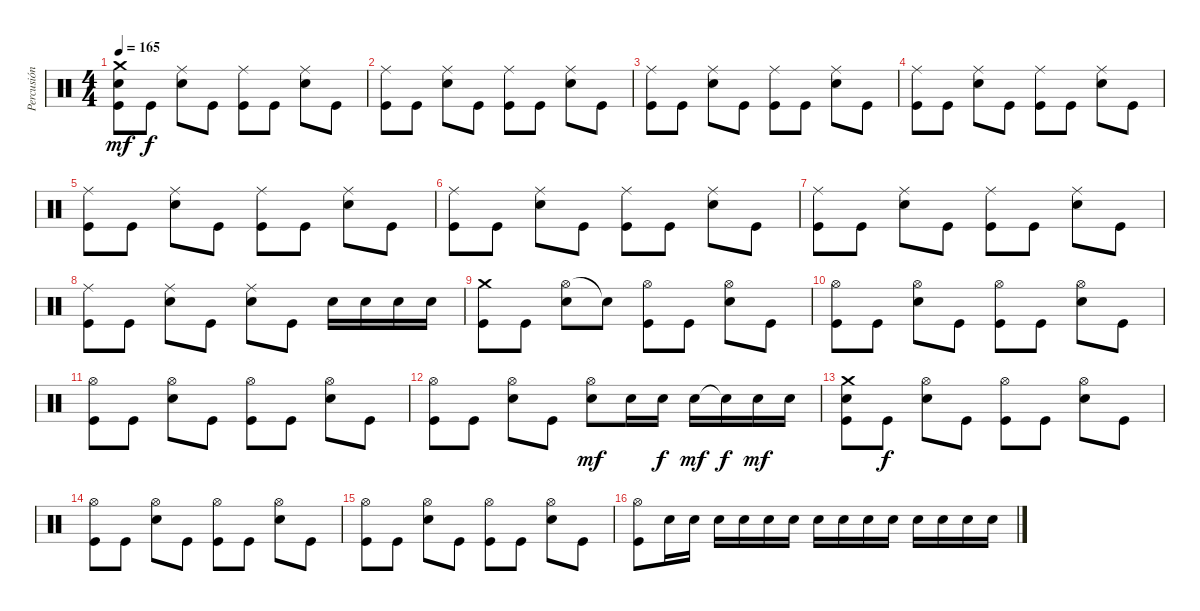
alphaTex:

\track ("Percusión" "Percusión") {instrument percussion}
\staff {score}
\articulation defaults
\ts (4 4)
\tempo 165
\clef neutral
\ks c
("Crash medium (hit)" "Electric Snare (hit)" "Kick (hit)").8{dy mf} "Kick (hit)".8{dy f} ("Ride (middle)" "Electric Snare (hit)").8 "Kick (hit)".8 ("Ride (middle)" "Kick (hit)").8 "Kick (hit)".8 ("Ride (middle)" "Electric Snare (hit)").8 "Kick (hit)".8 |
("Ride (middle)" "Kick (hit)").8 "Kick (hit)".8 ("Ride (middle)" "Electric Snare (hit)").8 "Kick (hit)".8 ("Ride (middle)" "Kick (hit)").8 "Kick (hit)".8 ("Ride (middle)" "Electric Snare (hit)").8 "Kick (hit)".8 |
("Ride (middle)" "Kick (hit)").8 "Kick (hit)".8 ("Ride (middle)" "Electric Snare (hit)").8 "Kick (hit)".8 ("Ride (middle)" "Kick (hit)").8 "Kick (hit)".8 ("Ride (middle)" "Electric Snare (hit)").8 "Kick (hit)".8 |
("Ride (middle)" "Kick (hit)").8 "Kick (hit)".8 ("Ride (middle)" "Electric Snare (hit)").8 "Kick (hit)".8 ("Ride (middle)" "Kick (hit)").8 "Kick (hit)".8 ("Ride (middle)" "Electric Snare (hit)").8 "Kick (hit)".8 |
("Ride (middle)" "Kick (hit)").8 "Kick (hit)".8 ("Ride (middle)" "Electric Snare (hit)").8 "Kick (hit)".8 ("Ride (middle)" "Kick (hit)").8 "Kick (hit)".8 ("Ride (middle)" "Electric Snare (hit)").8 "Kick (hit)".8 |
("Ride (middle)" "Kick (hit)").8 "Kick (hit)".8 ("Ride (middle)" "Electric Snare (hit)").8 "Kick (hit)".8 ("Ride (middle)" "Kick (hit)").8 "Kick (hit)".8 ("Ride (middle)" "Electric Snare (hit)").8 "Kick (hit)".8 |
("Ride (middle)" "Kick (hit)").8 "Kick (hit)".8 ("Ride (middle)" "Electric Snare (hit)").8 "Kick (hit)".8 ("Ride (middle)" "Kick (hit)").8 "Kick (hit)".8 ("Ride (middle)" "Electric Snare (hit)").8 "Kick (hit)".8 |
("Ride (middle)" "Kick (hit)").8 "Kick (hit)".8 ("Ride (middle)" "Electric Snare (hit)").8 "Kick (hit)".8 ("Ride (middle)" "Electric Snare (hit)").8 "Kick (hit)".8 "Electric Snare (hit)".16 "Electric Snare (hit)".16 "Electric Snare (hit)".16 "Electric Snare (hit)".16 |
("Crash medium (hit)" "Kick (hit)").8 "Kick (hit)".8 ("Hi-Hat (open)" "Electric Snare (hit)").8 "Snare (hit)"{t}.8 ("Hi-Hat (open)" "Kick (hit)").8 "Kick (hit)".8 ("Hi-Hat (open)" "Electric Snare (hit)").8 "Kick (hit)".8 |
("Hi-Hat (open)" "Kick (hit)").8 "Kick (hit)".8 ("Hi-Hat (open)" "Electric Snare (hit)").8 "Kick (hit)".8 ("Hi-Hat (open)" "Kick (hit)").8 "Kick (hit)".8 ("Hi-Hat (open)" "Electric Snare (hit)").8 "Kick (hit)".8 |
("Hi-Hat (open)" "Kick (hit)").8 "Kick (hit)".8 ("Hi-Hat (open)" "Electric Snare (hit)").8 "Kick (hit)".8 ("Hi-Hat (open)" "Kick (hit)").8 "Kick (hit)".8 ("Hi-Hat (open)" "Electric Snare (hit)").8 "Kick (hit)".8 |
("Hi-Hat (open)" "Kick (hit)").8 "Kick (hit)".8 ("Hi-Hat (open)" "Electric Snare (hit)").8 "Kick (hit)".8 ("Hi-Hat (open)" "Electric Snare (hit)").8{dy mf} "Electric Snare (hit)".16 "Electric Snare (hit)".16{dy f} "Electric Snare (hit)".16{dy mf} "Snare (hit)"{t}.16{dy f} "Electric Snare (hit)".16{dy mf} "Electric Snare (hit)".16 |
("Crash medium (hit)" "Electric Snare (hit)" "Kick (hit)").8 "Kick (hit)".8{dy f} ("Hi-Hat (open)" "Electric Snare (hit)").8 "Kick (hit)".8 ("Hi-Hat (open)" "Kick (hit)").8 "Kick (hit)".8 ("Hi-Hat (open)" "Electric Snare (hit)").8 "Kick (hit)".8 |
("Hi-Hat (open)" "Kick (hit)").8 "Kick (hit)".8 ("Hi-Hat (open)" "Electric Snare (hit)").8 "Kick (hit)".8 ("Hi-Hat (open)" "Kick (hit)").8 "Kick (hit)".8 ("Hi-Hat (open)" "Electric Snare (hit)").8 "Kick (hit)".8 |
("Hi-Hat (open)" "Kick (hit)").8 "Kick (hit)".8 ("Hi-Hat (open)" "Electric Snare (hit)").8 "Kick (hit)".8 ("Hi-Hat (open)" "Kick (hit)").8 "Kick (hit)".8 ("Hi-Hat (open)" "Electric Snare (hit)").8 "Kick (hit)".8 |
("Hi-Hat (open)" "Kick (hit)").8 "Electric Snare (hit)".16 "Electric Snare (hit)".16 "Electric Snare (hit)".16 "Electric Snare (hit)".16 "Electric Snare (hit)".16 "Electric Snare (hit)".16 "Electric Snare (hit)".16 "Electric Snare (hit)".16 "Electric Snare (hit)".16 "Electric Snare (hit)".16 "Electric Snare (hit)".16 "Electric Snare (hit)".16 "Electric Snare (hit)".16 "Electric Snare (hit)".16
